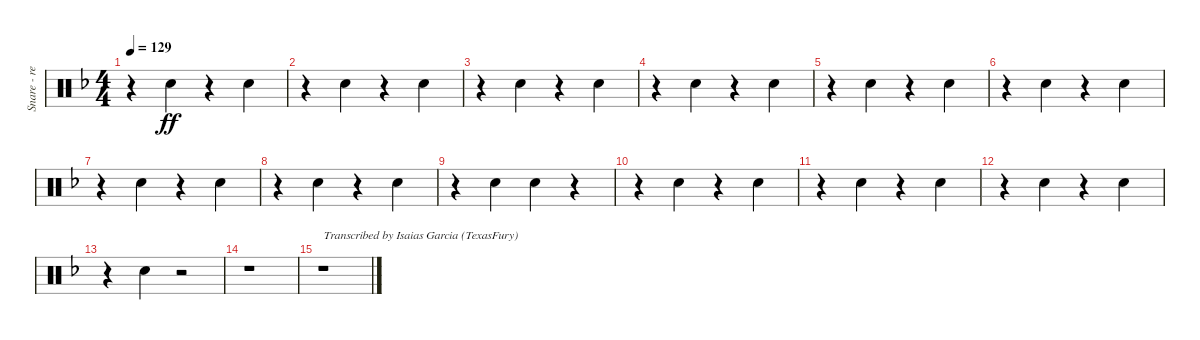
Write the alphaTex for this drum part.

\track ("Snare - reverb" "Snare - re") {instrument percussion}
\staff {score}
\articulation defaults
\ts (4 4)
\tempo 129
\clef neutral
\ks dminor
r.4{dy ff} "Snare (hit) 2".4 r.4 "Snare (hit) 2".4 |
r.4 "Snare (hit) 2".4 r.4 "Snare (hit) 2".4 |
r.4 "Snare (hit) 2".4 r.4 "Snare (hit) 2".4 |
r.4 "Snare (hit) 2".4 r.4 "Snare (hit) 2".4 |
r.4 "Snare (hit) 2".4 r.4 "Snare (hit) 2".4 |
r.4 "Snare (hit) 2".4 r.4 "Snare (hit) 2".4 |
r.4 "Snare (hit) 2".4 r.4 "Snare (hit) 2".4 |
r.4 "Snare (hit) 2".4 r.4 "Snare (hit) 2".4 |
r.4 "Snare (hit) 2".4 "Snare (hit) 2".4 r.4 |
r.4 "Snare (hit) 2".4 r.4 "Snare (hit) 2".4 |
r.4 "Snare (hit) 2".4 r.4 "Snare (hit) 2".4 |
r.4 "Snare (hit) 2".4 r.4 "Snare (hit) 2".4 |
r.4 "Snare (hit) 2".4 r.2 |
r.1 |
r.1{txt "Transcribed by Isaias Garcia (TexasFury)"}
